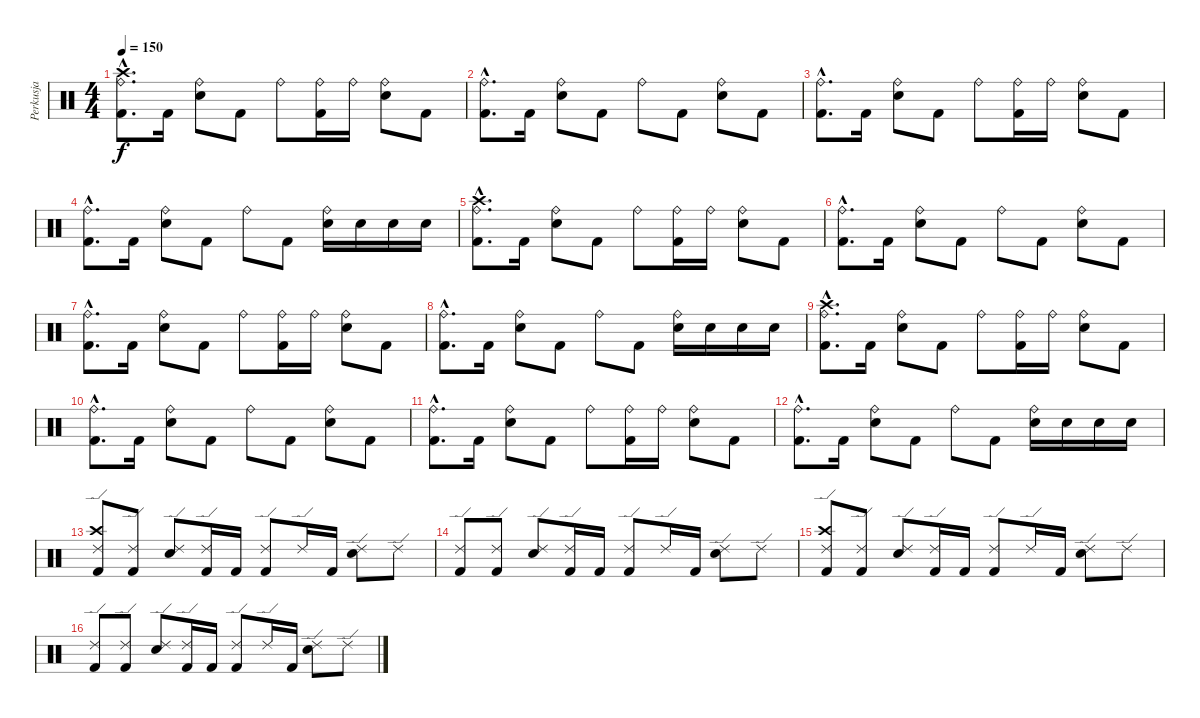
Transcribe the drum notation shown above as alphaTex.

\track ("Perkusja" "Perkusja") {instrument percussion}
\staff {score}
\articulation defaults
\ts (4 4)
\tempo 150
\clef neutral
\ks c
("Kick (hit) 2"{hac} "Ride (bell)"{hac} "Crash high (hit)"{hac}).8{d dy f} "Kick (hit) 2".16 ("Electric Snare (hit)" "Ride (bell)").8 "Kick (hit) 2".8 "Ride (bell)".8 ("Kick (hit) 2" "Ride (bell)").16 "Ride (bell)".16 ("Electric Snare (hit)" "Ride (bell)").8 "Kick (hit) 2".8 |
("Kick (hit) 2"{hac} "Ride (bell)"{hac}).8{d} "Kick (hit) 2".16 ("Electric Snare (hit)" "Ride (bell)").8 "Kick (hit) 2".8 "Ride (bell)".8 "Kick (hit) 2".8 ("Electric Snare (hit)" "Ride (bell)").8 "Kick (hit) 2".8 |
("Kick (hit) 2"{hac} "Ride (bell)"{hac}).8{d} "Kick (hit) 2".16 ("Electric Snare (hit)" "Ride (bell)").8 "Kick (hit) 2".8 "Ride (bell)".8 ("Kick (hit) 2" "Ride (bell)").16 "Ride (bell)".16 ("Electric Snare (hit)" "Ride (bell)").8 "Kick (hit) 2".8 |
("Kick (hit) 2"{hac} "Ride (bell)"{hac}).8{d} "Kick (hit) 2".16 ("Electric Snare (hit)" "Ride (bell)").8 "Kick (hit) 2".8 "Ride (bell)".8 "Kick (hit) 2".8 ("Electric Snare (hit)" "Ride (bell)").16 "Electric Snare (hit)".16 "Electric Snare (hit)".16 "Electric Snare (hit)".16 |
("Kick (hit) 2"{hac} "Ride (bell)"{hac} "Crash high (hit)"{hac}).8{d} "Kick (hit) 2".16 ("Electric Snare (hit)" "Ride (bell)").8 "Kick (hit) 2".8 "Ride (bell)".8 ("Kick (hit) 2" "Ride (bell)").16 "Ride (bell)".16 ("Electric Snare (hit)" "Ride (bell)").8 "Kick (hit) 2".8 |
("Kick (hit) 2"{hac} "Ride (bell)"{hac}).8{d} "Kick (hit) 2".16 ("Electric Snare (hit)" "Ride (bell)").8 "Kick (hit) 2".8 "Ride (bell)".8 "Kick (hit) 2".8 ("Electric Snare (hit)" "Ride (bell)").8 "Kick (hit) 2".8 |
("Kick (hit) 2"{hac} "Ride (bell)"{hac}).8{d} "Kick (hit) 2".16 ("Electric Snare (hit)" "Ride (bell)").8 "Kick (hit) 2".8 "Ride (bell)".8 ("Kick (hit) 2" "Ride (bell)").16 "Ride (bell)".16 ("Electric Snare (hit)" "Ride (bell)").8 "Kick (hit) 2".8 |
("Kick (hit) 2"{hac} "Ride (bell)"{hac}).8{d} "Kick (hit) 2".16 ("Electric Snare (hit)" "Ride (bell)").8 "Kick (hit) 2".8 "Ride (bell)".8 "Kick (hit) 2".8 ("Electric Snare (hit)" "Ride (bell)").16 "Electric Snare (hit)".16 "Electric Snare (hit)".16 "Electric Snare (hit)".16 |
("Kick (hit) 2"{hac} "Ride (bell)"{hac} "Crash high (hit)"{hac}).8{d} "Kick (hit) 2".16 ("Electric Snare (hit)" "Ride (bell)").8 "Kick (hit) 2".8 "Ride (bell)".8 ("Kick (hit) 2" "Ride (bell)").16 "Ride (bell)".16 ("Electric Snare (hit)" "Ride (bell)").8 "Kick (hit) 2".8 |
("Kick (hit) 2"{hac} "Ride (bell)"{hac}).8{d} "Kick (hit) 2".16 ("Electric Snare (hit)" "Ride (bell)").8 "Kick (hit) 2".8 "Ride (bell)".8 "Kick (hit) 2".8 ("Electric Snare (hit)" "Ride (bell)").8 "Kick (hit) 2".8 |
("Kick (hit) 2"{hac} "Ride (bell)"{hac}).8{d} "Kick (hit) 2".16 ("Electric Snare (hit)" "Ride (bell)").8 "Kick (hit) 2".8 "Ride (bell)".8 ("Kick (hit) 2" "Ride (bell)").16 "Ride (bell)".16 ("Electric Snare (hit)" "Ride (bell)").8 "Kick (hit) 2".8 |
("Kick (hit) 2"{hac} "Ride (bell)"{hac}).8{d} "Kick (hit) 2".16 ("Electric Snare (hit)" "Ride (bell)").8 "Kick (hit) 2".8 "Ride (bell)".8 "Kick (hit) 2".8 ("Electric Snare (hit)" "Ride (bell)").16 "Electric Snare (hit)".16 "Electric Snare (hit)".16 "Electric Snare (hit)".16 |
("Kick (hit) 2" "Ride (edge) 2" "Crash high (hit)").8 ("Kick (hit) 2" "Ride (edge) 2").8 ("Electric Snare (hit)" "Ride (edge) 2").8 ("Kick (hit) 2" "Ride (edge) 2").16 "Kick (hit) 2".16 ("Kick (hit) 2" "Ride (edge) 2").8 "Ride (edge) 2".16 "Kick (hit) 2".16 ("Electric Snare (hit)" "Ride (edge) 2").8 "Ride (edge) 2".8 |
("Kick (hit) 2" "Ride (edge) 2").8 ("Kick (hit) 2" "Ride (edge) 2").8 ("Electric Snare (hit)" "Ride (edge) 2").8 ("Kick (hit) 2" "Ride (edge) 2").16 "Kick (hit) 2".16 ("Kick (hit) 2" "Ride (edge) 2").8 "Ride (edge) 2".16 "Kick (hit) 2".16 ("Electric Snare (hit)" "Ride (edge) 2").8 "Ride (edge) 2".8 |
("Kick (hit) 2" "Ride (edge) 2" "Crash high (hit)").8 ("Kick (hit) 2" "Ride (edge) 2").8 ("Electric Snare (hit)" "Ride (edge) 2").8 ("Kick (hit) 2" "Ride (edge) 2").16 "Kick (hit) 2".16 ("Kick (hit) 2" "Ride (edge) 2").8 "Ride (edge) 2".16 "Kick (hit) 2".16 ("Electric Snare (hit)" "Ride (edge) 2").8 "Ride (edge) 2".8 |
("Kick (hit) 2" "Ride (edge) 2").8 ("Kick (hit) 2" "Ride (edge) 2").8 ("Electric Snare (hit)" "Ride (edge) 2").8 ("Kick (hit) 2" "Ride (edge) 2").16 "Kick (hit) 2".16 ("Kick (hit) 2" "Ride (edge) 2").8 "Ride (edge) 2".16 "Kick (hit) 2".16 ("Electric Snare (hit)" "Ride (edge) 2").8 "Ride (edge) 2".8
